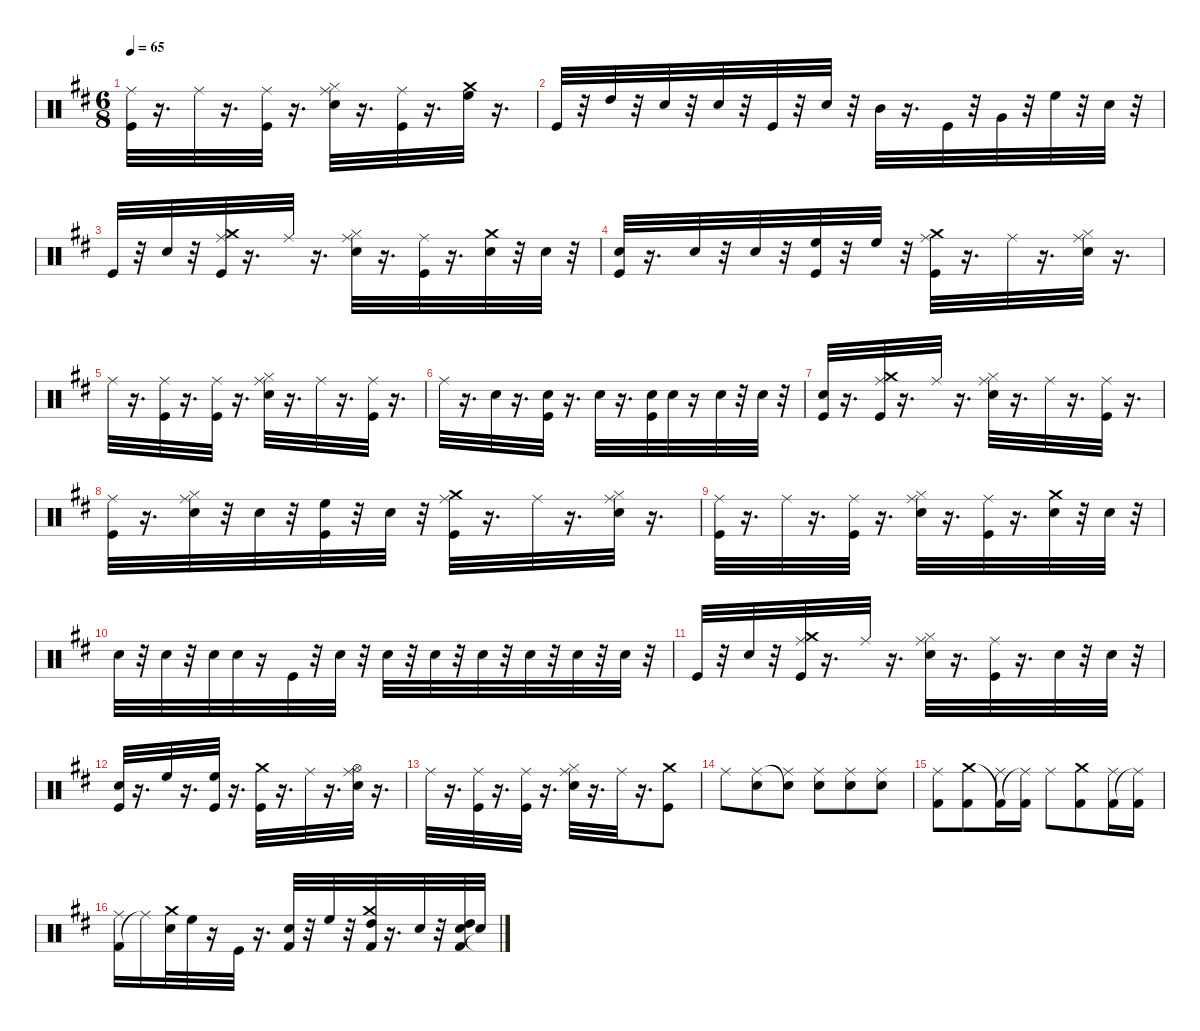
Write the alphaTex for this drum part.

\hideDynamics
\bracketExtendMode nobrackets
\singleTrackTrackNamePolicy hidden
\multiTrackTrackNamePolicy hidden
\firstSystemTrackNameMode fullname
\firstSystemTrackNameOrientation horizontal
\otherSystemsTrackNameOrientation horizontal
\track ("Drums" "drm.") {instrument percussion}
\staff {score}
\articulation defaults
\ts (6 8)
\tempo 65
\clef neutral
\ks bminor
("Kick (hit)"{acc forcenatural} "Ride (middle)"{acc #}).32{dy fff beam Down} r.16{d beam Down} "Ride (middle)"{acc #}.32{dy f beam Down} r.16{d beam Down} ("Kick (hit)"{acc forcenatural} "Ride (middle)"{acc #}).32{beam Down} r.16{d beam Down} ("Electric Snare (hit)"{acc forcenatural} "Hi-Hat (closed)"{acc #} "Ride (middle)"{acc #}).32{dy fff beam Down} r.16{d beam Down} ("Kick (hit)"{acc forcenatural} "Ride (middle)"{acc #}).32{dy f beam Down} r.16{d beam Down} ("High Floor Tom (hit)"{acc forcenatural} "Crash medium (hit)"{acc forcenatural}).32{dy fff beam Down} r.16{d beam Down} |
"Kick (hit)"{acc forcenatural}.32{dy f beam Up} r.32{beam Up} "High Tom (hit)"{acc forcenatural}.32{beam Down} r.32{beam Down} "Electric Snare (hit)"{acc forcenatural}.32{dy mp beam Down} r.32{beam Down} "Electric Snare (hit)"{acc forcenatural}.32{dy p beam Down} r.32{beam Down} "Kick (hit)"{acc forcenatural}.32{dy f beam Up} r.32{beam Up} "Electric Snare (hit)"{acc forcenatural}.32{dy p beam Down} r.32{beam Down} "Mid Tom (hit)"{acc forcenatural}.32{dy f beam Down} r.16{d beam Down} "Kick (hit)"{acc forcenatural}.32{beam Up} r.32{beam Up} "Very Low Tom (hit)"{acc forcenatural}.32{beam Up} r.32{beam Up} "High Floor Tom (hit)"{acc forcenatural}.32{dy mp beam Down} r.32{beam Down} "Electric Snare (hit)"{acc forcenatural}.32{dy p beam Down} r.32{beam Down} |
"Kick (hit)"{acc forcenatural}.32{dy f beam Up} r.32{beam Up} "Electric Snare (hit)"{acc forcenatural}.32{dy pp beam Down} r.32{beam Down} ("Crash medium (hit)"{acc forcenatural} "Kick (hit)"{acc forcenatural} "Ride (middle)"{acc #}).32{dy fff beam Down} r.16{d beam Down} "Ride (middle)"{acc #}.32{dy f beam Down} r.16{d beam Down} ("Electric Snare (hit)"{acc forcenatural} "Hi-Hat (closed)"{acc #} "Ride (middle)"{acc #}).32{dy fff beam Down} r.16{d beam Down} ("Kick (hit)"{acc forcenatural} "Ride (middle)"{acc #}).32{beam Down} r.16{d beam Down} ("Electric Snare (hit)"{acc forcenatural} "Crash medium (hit)"{acc forcenatural}).32{dy p beam Down} r.32{beam Down} "Electric Snare (hit)"{acc forcenatural}.32{dy pp beam Down} r.32{beam Down} |
("Kick (hit)"{acc forcenatural} "Electric Snare (hit)"{acc forcenatural}).32{dy f beam Up} r.16{d beam Up} "Electric Snare (hit)"{acc forcenatural}.32{dy pp beam Down} r.32{beam Down} "Electric Snare (hit)"{acc forcenatural}.32{dy p beam Down} r.32{beam Down} ("Kick (hit)"{acc forcenatural} "High Floor Tom (hit)"{acc forcenatural}).32{dy f beam Up} r.32{beam Up} "High Floor Tom (hit)"{acc forcenatural}.32{beam Down} r.32{beam Down} ("Crash medium (hit)"{acc forcenatural} "Kick (hit)"{acc forcenatural} "Ride (middle)"{acc #}).32{dy fff beam Down} r.16{d beam Down} "Ride (middle)"{acc #}.32{dy f beam Down} r.16{d beam Down} ("Electric Snare (hit)"{acc forcenatural} "Hi-Hat (closed)"{acc #} "Ride (middle)"{acc #}).32{dy fff beam Down} r.16{d beam Down} |
"Ride (middle)"{acc #}.32{beam Down} r.16{d beam Down} ("Kick (hit)"{acc forcenatural} "Ride (middle)"{acc #}).32{beam Down} r.16{d beam Down} ("Kick (hit)"{acc forcenatural} "Ride (middle)"{acc #}).32{dy f beam Down} r.16{d beam Down} ("Electric Snare (hit)"{acc forcenatural} "Hi-Hat (closed)"{acc #} "Ride (middle)"{acc #}).32{dy fff beam Down} r.16{d beam Down} "Ride (middle)"{acc #}.32{dy mp beam Down} r.16{d beam Down} ("Kick (hit)"{acc forcenatural} "Ride (middle)"{acc #}).32{dy fff beam Down} r.16{d beam Down} |
"Ride (middle)"{acc #}.32{dy f beam Down} r.16{d beam Down} "Electric Snare (hit)"{acc forcenatural}.32{dy fff beam Down} r.16{d beam Down} ("Kick (hit)"{acc forcenatural} "Electric Snare (hit)"{acc forcenatural}).32{beam Up} r.16{d beam Up} "Electric Snare (hit)"{acc forcenatural}.32{dy pp beam Down} r.16{d beam Down} ("Kick (hit)"{acc forcenatural} "Electric Snare (hit)"{acc forcenatural}).32{dy f beam Up} "Electric Snare (hit)"{acc forcenatural}.32{dy mp beam Up} r.16{beam Up} "Electric Snare (hit)"{acc forcenatural}.32{dy p beam Down} r.32{beam Down} "Electric Snare (hit)"{acc forcenatural}.32{beam Down} r.32{beam Down} |
("Kick (hit)"{acc forcenatural} "Electric Snare (hit)"{acc forcenatural}).32{dy f beam Up} r.16{d beam Up} ("Crash medium (hit)"{acc forcenatural} "Kick (hit)"{acc forcenatural} "Ride (middle)"{acc #}).32{dy fff beam Down} r.16{d beam Down} "Ride (middle)"{acc #}.32{dy f beam Down} r.16{d beam Down} ("Electric Snare (hit)"{acc forcenatural} "Hi-Hat (closed)"{acc #} "Ride (middle)"{acc #}).32{dy fff beam Down} r.16{d beam Down} "Ride (middle)"{acc #}.32{dy f beam Down} r.16{d beam Down} ("Kick (hit)"{acc forcenatural} "Ride (middle)"{acc #}).32{dy fff beam Down} r.16{d beam Down} |
("Kick (hit)"{acc forcenatural} "Ride (middle)"{acc #}).32{dy f beam Down} r.16{d beam Down} ("Electric Snare (hit)"{acc forcenatural} "Hi-Hat (closed)"{acc #} "Ride (middle)"{acc #}).32{dy fff beam Down} r.32{beam Down} "Electric Snare (hit)"{acc forcenatural}.32{dy mf beam Down} r.32{beam Down} ("Kick (hit)"{acc forcenatural} "High Floor Tom (hit)"{acc forcenatural}).32{dy f beam Up} r.32{beam Up} "Electric Snare (hit)"{acc forcenatural}.32{dy p beam Down} r.32{beam Down} ("Crash medium (hit)"{acc forcenatural} "Kick (hit)"{acc forcenatural} "Ride (middle)"{acc #}).32{dy fff beam Down} r.16{d beam Down} "Ride (middle)"{acc #}.32{dy f beam Down} r.16{d beam Down} ("Electric Snare (hit)"{acc forcenatural} "Hi-Hat (closed)"{acc #} "Ride (middle)"{acc #}).32{dy fff beam Down} r.16{d beam Down} |
("Kick (hit)"{acc forcenatural} "Ride (middle)"{acc #}).32{beam Down} r.16{d beam Down} "Ride (middle)"{acc #}.32{dy f beam Down} r.16{d beam Down} ("Kick (hit)"{acc forcenatural} "Ride (middle)"{acc #}).32{beam Down} r.16{d beam Down} ("Electric Snare (hit)"{acc forcenatural} "Hi-Hat (closed)"{acc #} "Ride (middle)"{acc #}).32{dy fff beam Down} r.16{d beam Down} ("Kick (hit)"{acc forcenatural} "Ride (middle)"{acc #}).32{dy f beam Down} r.16{d beam Down} ("Electric Snare (hit)"{acc forcenatural} "Crash medium (hit)"{acc forcenatural}).32{dy fff beam Down} r.32{beam Down} "Electric Snare (hit)"{acc forcenatural}.32{dy f beam Down} r.32{beam Down} |
"Electric Snare (hit)"{acc forcenatural}.32{dy pp beam Down} r.32{beam Down} "Electric Snare (hit)"{acc forcenatural}.32{dy mf beam Down} r.32{beam Down} "Electric Snare (hit)"{acc forcenatural}.32{dy fff beam Down} "Electric Snare (hit)"{acc forcenatural}.32{dy f beam Down} r.16{beam Down} "Kick (hit)"{acc forcenatural}.32{beam Up} r.32{beam Up} "Electric Snare (hit)"{acc forcenatural}.32{dy pp beam Down} r.32{beam Down} "Electric Snare (hit)"{acc forcenatural}.32{dy fff beam Down} r.32{beam Down} "Electric Snare (hit)"{acc forcenatural}.32{dy f beam Down} r.32{beam Down} "Electric Snare (hit)"{acc forcenatural}.32{dy pp beam Down} r.32{beam Down} "Electric Snare (hit)"{acc forcenatural}.32{dy fff beam Down} r.32{beam Down} "Electric Snare (hit)"{acc forcenatural}.32{dy mp beam Down} r.32{beam Down} "Electric Snare (hit)"{acc forcenatural}.32{dy pp beam Down} r.32{beam Down} |
"Kick (hit)"{acc forcenatural}.32{dy f beam Up} r.32{beam Up} "Electric Snare (hit)"{acc forcenatural}.32{dy mp beam Down} r.32{beam Down} ("Crash medium (hit)"{acc forcenatural} "Kick (hit)"{acc forcenatural} "Ride (middle)"{acc #}).32{dy fff beam Down} r.16{d beam Down} "Ride (middle)"{acc #}.32{dy f beam Down} r.16{d beam Down} ("Electric Snare (hit)"{acc forcenatural} "Hi-Hat (closed)"{acc #} "Ride (middle)"{acc #}).32{dy fff beam Down} r.16{d beam Down} ("Kick (hit)"{acc forcenatural} "Ride (middle)"{acc #}).32{beam Down} r.16{d beam Down} "Electric Snare (hit)"{acc forcenatural}.32{dy p beam Down} r.32{beam Down} "Electric Snare (hit)"{acc forcenatural}.32{dy pp beam Down} r.32{beam Down} |
("Kick (hit)"{acc forcenatural} "Electric Snare (hit)"{acc forcenatural}).32{dy f beam Up} r.16{d beam Up} "High Floor Tom (hit)"{acc forcenatural}.32{dy fff beam Down} r.16{d beam Down} ("Kick (hit)"{acc forcenatural} "High Floor Tom (hit)"{acc forcenatural}).32{dy f beam Up} r.16{d beam Up} ("Crash medium (hit)"{acc forcenatural} "Kick (hit)"{acc forcenatural}).32{dy fff beam Down} r.16{d beam Down} "Ride (middle)"{acc #}.32{dy f beam Down} r.16{d beam Down} ("Electric Snare (hit)"{acc forcenatural} "Hi-Hat (open)"{acc #} "Ride (middle)"{acc #}).32{dy fff beam Down} r.16{d beam Down} |
"Ride (middle)"{acc #}.32{dy mf beam Down} r.16{d beam Down} ("Kick (hit)"{acc forcenatural} "Ride (middle)"{acc #}).32{dy fff beam Down} r.16{d beam Down} ("Kick (hit)"{acc forcenatural} "Ride (middle)"{acc #}).32{dy f beam Down} r.16{d beam Down} ("Electric Snare (hit)"{acc forcenatural} "Hi-Hat (closed)"{acc #} "Ride (middle)"{acc #}).32{dy fff beam Down} r.16{d beam Down} "Ride (middle)"{acc #}.32{dy mp beam Down} r.16{d beam Down} ("Kick (hit)"{acc forcenatural} "Crash medium (hit)"{acc forcenatural}).8{dy f beam Down} |
"Ride (middle)"{acc #}.8{dy ff beam Down} ("Ride (middle)"{acc #} "Electric Snare (hit)"{acc forcenatural}).8{beam Down} ("Electric Snare (hit)"{t acc forcenatural} "Ride (middle)"{acc #}).8{dy f beam Down} ("Snare (hit) 2"{acc forcenatural} "Ride (middle)"{acc #}).8{beam Down} ("Electric Snare (hit)"{acc forcenatural} "Ride (middle)"{acc #}).8{beam Down} ("Electric Snare (hit)"{acc forcenatural} "Ride (middle)"{acc #}).8{beam Down} |
("Kick (hit) 2"{acc forcenatural} "Ride (middle)"{acc #}).8{beam Down} ("Crash medium (hit)"{acc forcenatural} "Kick (hit) 2"{acc forcenatural}).8{dy ff beam Down} ("Kick (hit) 2"{t acc forcenatural} "Ride (middle)"{acc #}).16{beam Down} ("Ride (middle)"{t acc #} "Kick (hit) 2"{acc forcenatural}).16{beam Down} "Ride (middle)"{acc #}.8{beam Down} ("Kick (hit) 2"{acc forcenatural} "Crash medium (hit)"{acc forcenatural}).8{beam Down} ("Kick (hit) 2"{acc forcenatural} "Ride (middle)"{acc #}).16{beam Down} ("Ride (middle)"{t acc #} "Kick (hit) 2"{acc forcenatural}).16{beam Down} |
("Kick (hit) 2"{acc forcenatural} "Ride (middle)"{acc #}).16{beam Down} "Ride (middle)"{t acc #}.16{beam Down} ("Electric Snare (hit)"{acc forcenatural} "Crash medium (hit)"{acc forcenatural}).32{dy fff beam Down} "High Floor Tom (hit)"{acc forcenatural}.32{dy f beam Down} r.16{beam Down} "Kick (hit)"{acc forcenatural}.32{dy fff beam Up} r.16{d beam Up} ("Kick (hit) 2"{acc forcenatural} "Electric Snare (hit)"{acc forcenatural}).32{dy f beam Up} r.32{beam Up} "High Floor Tom (hit)"{acc forcenatural}.32{dy mp beam Down} r.32{beam Down} ("Kick (hit) 2"{acc forcenatural} "High Tom (hit)"{acc forcenatural} "Crash medium (hit)"{acc forcenatural}).32{dy f beam Down} r.16{d beam Down} "Electric Snare (hit)"{acc forcenatural}.32{dy pp beam Down} r.32{beam Down} ("Kick (hit) 2"{acc forcenatural} "High Tom (hit)"{acc forcenatural} "Electric Snare (hit)"{acc forcenatural}).32{dy f beam Up} "Electric Snare (hit)"{t acc forcenatural}.32{dy fff beam Up}
